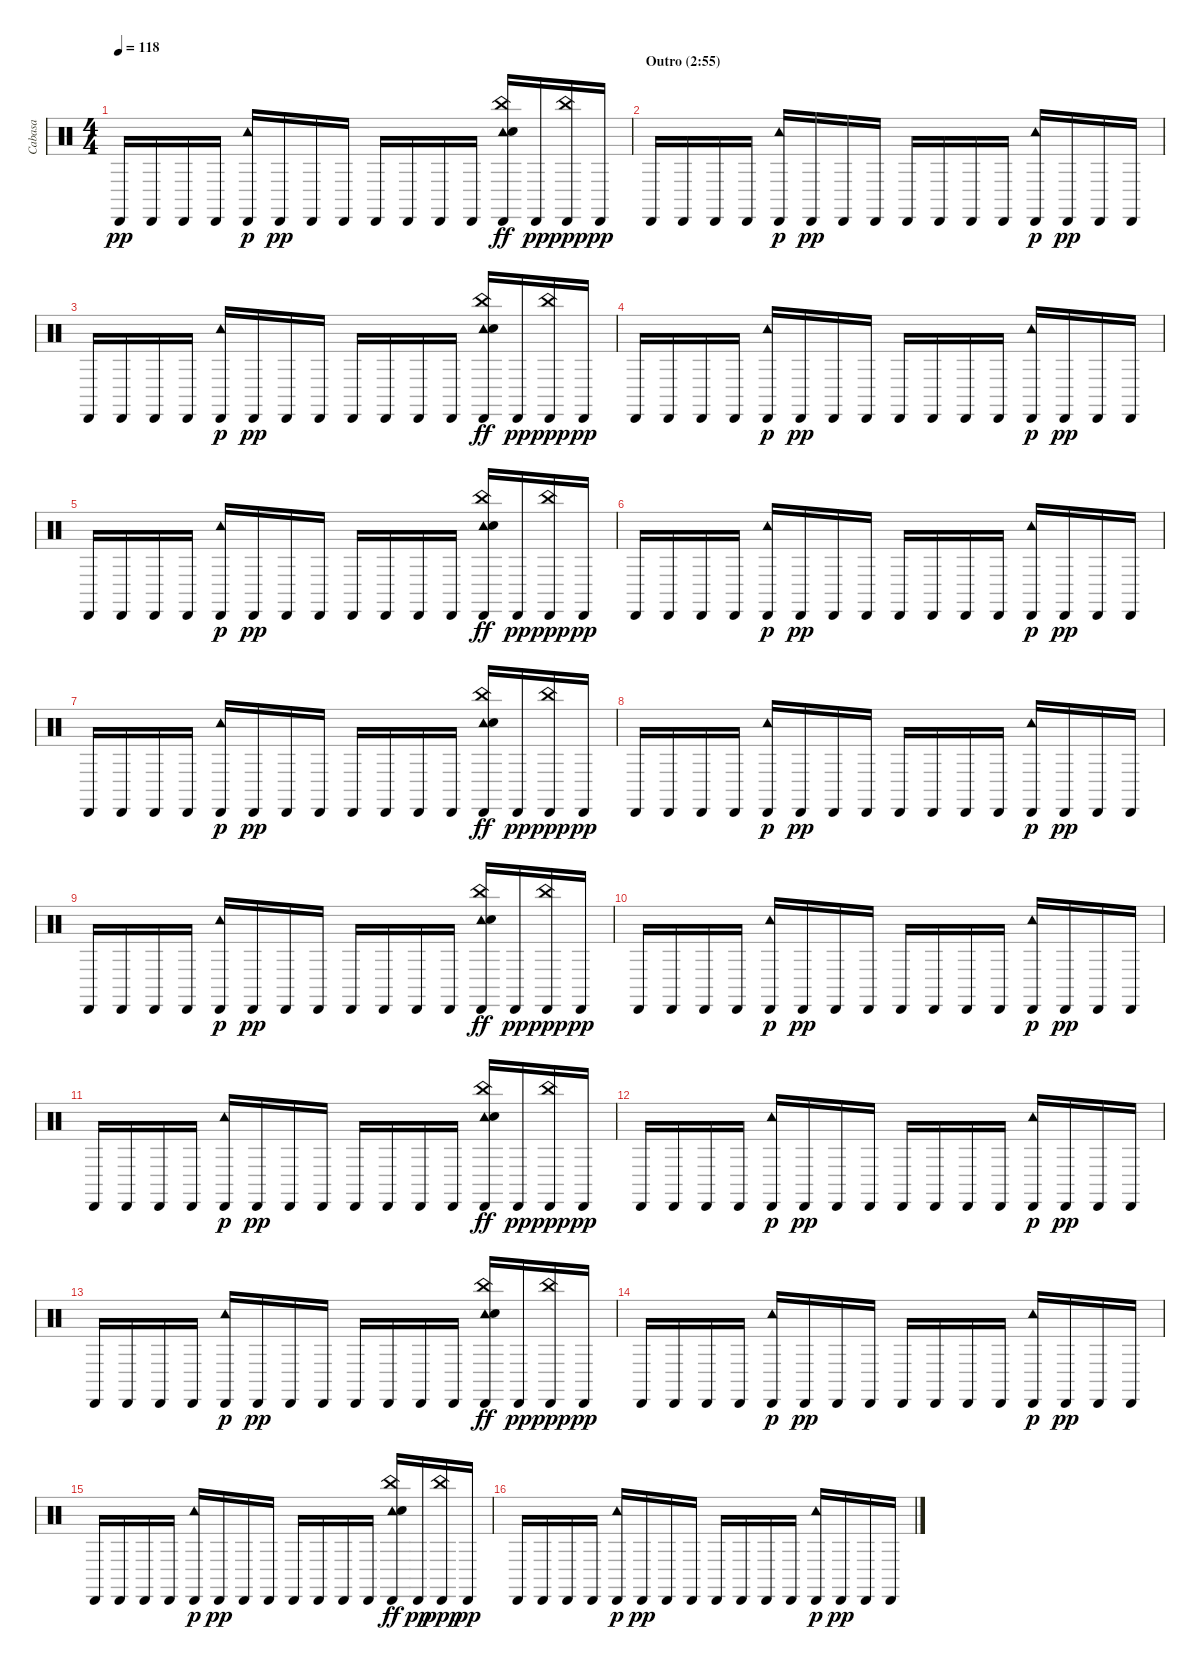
\track ("Cabasa" "Cabasa") {instrument percussion}
\staff {score}
\articulation defaults
\ts (4 4)
\tempo 118
\clef neutral
\ks c "Cabasa (hit)".16{dy pp} "Cabasa (hit)".16 "Cabasa (hit)".16 "Cabasa (hit)".16
("Cabasa (hit)" "Tambourine (hit)").16{dy p} "Cabasa (hit)".16{dy pp} "Cabasa (hit)".16 "Cabasa (hit)".16 "Cabasa (hit)".16 "Cabasa (hit)".16 "Cabasa (hit)".16 "Cabasa (hit)".16 ("Cabasa (hit)" "Tambourine (hit)" "Hand Clap (hit)" "China (hit)").16{dy ff} "Cabasa (hit)".16{dy pp} ("Cabasa (hit)" "China (hit)").16{dy ppp} "Cabasa (hit)".16{dy pp} |
\section ("" "Outro (2:55)")
"Cabasa (hit)".16 "Cabasa (hit)".16 "Cabasa (hit)".16 "Cabasa (hit)".16 ("Cabasa (hit)" "Tambourine (hit)").16{dy p} "Cabasa (hit)".16{dy pp} "Cabasa (hit)".16 "Cabasa (hit)".16 "Cabasa (hit)".16 "Cabasa (hit)".16 "Cabasa (hit)".16 "Cabasa (hit)".16 ("Cabasa (hit)" "Tambourine (hit)").16{dy p} "Cabasa (hit)".16{dy pp} "Cabasa (hit)".16 "Cabasa (hit)".16 |
"Cabasa (hit)".16 "Cabasa (hit)".16 "Cabasa (hit)".16 "Cabasa (hit)".16 ("Cabasa (hit)" "Tambourine (hit)").16{dy p} "Cabasa (hit)".16{dy pp} "Cabasa (hit)".16 "Cabasa (hit)".16 "Cabasa (hit)".16 "Cabasa (hit)".16 "Cabasa (hit)".16 "Cabasa (hit)".16 ("Cabasa (hit)" "Tambourine (hit)" "Hand Clap (hit)" "China (hit)").16{dy ff} "Cabasa (hit)".16{dy pp} ("Cabasa (hit)" "China (hit)").16{dy ppp} "Cabasa (hit)".16{dy pp} |
"Cabasa (hit)".16 "Cabasa (hit)".16 "Cabasa (hit)".16 "Cabasa (hit)".16 ("Cabasa (hit)" "Tambourine (hit)").16{dy p} "Cabasa (hit)".16{dy pp} "Cabasa (hit)".16 "Cabasa (hit)".16 "Cabasa (hit)".16 "Cabasa (hit)".16 "Cabasa (hit)".16 "Cabasa (hit)".16 ("Cabasa (hit)" "Tambourine (hit)").16{dy p} "Cabasa (hit)".16{dy pp} "Cabasa (hit)".16 "Cabasa (hit)".16 |
"Cabasa (hit)".16 "Cabasa (hit)".16 "Cabasa (hit)".16 "Cabasa (hit)".16 ("Cabasa (hit)" "Tambourine (hit)").16{dy p} "Cabasa (hit)".16{dy pp} "Cabasa (hit)".16 "Cabasa (hit)".16 "Cabasa (hit)".16 "Cabasa (hit)".16 "Cabasa (hit)".16 "Cabasa (hit)".16 ("Cabasa (hit)" "Tambourine (hit)" "Hand Clap (hit)" "China (hit)").16{dy ff} "Cabasa (hit)".16{dy pp} ("Cabasa (hit)" "China (hit)").16{dy ppp} "Cabasa (hit)".16{dy pp} |
"Cabasa (hit)".16 "Cabasa (hit)".16 "Cabasa (hit)".16 "Cabasa (hit)".16 ("Cabasa (hit)" "Tambourine (hit)").16{dy p} "Cabasa (hit)".16{dy pp} "Cabasa (hit)".16 "Cabasa (hit)".16 "Cabasa (hit)".16 "Cabasa (hit)".16 "Cabasa (hit)".16 "Cabasa (hit)".16 ("Cabasa (hit)" "Tambourine (hit)").16{dy p} "Cabasa (hit)".16{dy pp} "Cabasa (hit)".16 "Cabasa (hit)".16 |
"Cabasa (hit)".16 "Cabasa (hit)".16 "Cabasa (hit)".16 "Cabasa (hit)".16 ("Cabasa (hit)" "Tambourine (hit)").16{dy p} "Cabasa (hit)".16{dy pp} "Cabasa (hit)".16 "Cabasa (hit)".16 "Cabasa (hit)".16 "Cabasa (hit)".16 "Cabasa (hit)".16 "Cabasa (hit)".16 ("Cabasa (hit)" "Tambourine (hit)" "Hand Clap (hit)" "China (hit)").16{dy ff} "Cabasa (hit)".16{dy pp} ("Cabasa (hit)" "China (hit)").16{dy ppp} "Cabasa (hit)".16{dy pp} |
"Cabasa (hit)".16 "Cabasa (hit)".16 "Cabasa (hit)".16 "Cabasa (hit)".16 ("Cabasa (hit)" "Tambourine (hit)").16{dy p} "Cabasa (hit)".16{dy pp} "Cabasa (hit)".16 "Cabasa (hit)".16 "Cabasa (hit)".16 "Cabasa (hit)".16 "Cabasa (hit)".16 "Cabasa (hit)".16 ("Cabasa (hit)" "Tambourine (hit)").16{dy p} "Cabasa (hit)".16{dy pp} "Cabasa (hit)".16 "Cabasa (hit)".16 |
"Cabasa (hit)".16 "Cabasa (hit)".16 "Cabasa (hit)".16 "Cabasa (hit)".16 ("Cabasa (hit)" "Tambourine (hit)").16{dy p} "Cabasa (hit)".16{dy pp} "Cabasa (hit)".16 "Cabasa (hit)".16 "Cabasa (hit)".16 "Cabasa (hit)".16 "Cabasa (hit)".16 "Cabasa (hit)".16 ("Cabasa (hit)" "Tambourine (hit)" "Hand Clap (hit)" "China (hit)").16{dy ff} "Cabasa (hit)".16{dy pp} ("Cabasa (hit)" "China (hit)").16{dy ppp} "Cabasa (hit)".16{dy pp} |
"Cabasa (hit)".16 "Cabasa (hit)".16 "Cabasa (hit)".16 "Cabasa (hit)".16 ("Cabasa (hit)" "Tambourine (hit)").16{dy p} "Cabasa (hit)".16{dy pp} "Cabasa (hit)".16 "Cabasa (hit)".16 "Cabasa (hit)".16 "Cabasa (hit)".16 "Cabasa (hit)".16 "Cabasa (hit)".16 ("Cabasa (hit)" "Tambourine (hit)").16{dy p} "Cabasa (hit)".16{dy pp} "Cabasa (hit)".16 "Cabasa (hit)".16 |
"Cabasa (hit)".16 "Cabasa (hit)".16 "Cabasa (hit)".16 "Cabasa (hit)".16 ("Cabasa (hit)" "Tambourine (hit)").16{dy p} "Cabasa (hit)".16{dy pp} "Cabasa (hit)".16 "Cabasa (hit)".16 "Cabasa (hit)".16 "Cabasa (hit)".16 "Cabasa (hit)".16 "Cabasa (hit)".16 ("Cabasa (hit)" "Tambourine (hit)" "Hand Clap (hit)" "China (hit)").16{dy ff} "Cabasa (hit)".16{dy pp} ("Cabasa (hit)" "China (hit)").16{dy ppp} "Cabasa (hit)".16{dy pp} |
"Cabasa (hit)".16 "Cabasa (hit)".16 "Cabasa (hit)".16 "Cabasa (hit)".16 ("Cabasa (hit)" "Tambourine (hit)").16{dy p} "Cabasa (hit)".16{dy pp} "Cabasa (hit)".16 "Cabasa (hit)".16 "Cabasa (hit)".16 "Cabasa (hit)".16 "Cabasa (hit)".16 "Cabasa (hit)".16 ("Cabasa (hit)" "Tambourine (hit)").16{dy p} "Cabasa (hit)".16{dy pp} "Cabasa (hit)".16 "Cabasa (hit)".16 |
"Cabasa (hit)".16 "Cabasa (hit)".16 "Cabasa (hit)".16 "Cabasa (hit)".16 ("Cabasa (hit)" "Tambourine (hit)").16{dy p} "Cabasa (hit)".16{dy pp} "Cabasa (hit)".16 "Cabasa (hit)".16 "Cabasa (hit)".16 "Cabasa (hit)".16 "Cabasa (hit)".16 "Cabasa (hit)".16 ("Cabasa (hit)" "Tambourine (hit)" "Hand Clap (hit)" "China (hit)").16{dy ff} "Cabasa (hit)".16{dy pp} ("Cabasa (hit)" "China (hit)").16{dy ppp} "Cabasa (hit)".16{dy pp} |
"Cabasa (hit)".16 "Cabasa (hit)".16 "Cabasa (hit)".16 "Cabasa (hit)".16 ("Cabasa (hit)" "Tambourine (hit)").16{dy p} "Cabasa (hit)".16{dy pp} "Cabasa (hit)".16 "Cabasa (hit)".16 "Cabasa (hit)".16 "Cabasa (hit)".16 "Cabasa (hit)".16 "Cabasa (hit)".16 ("Cabasa (hit)" "Tambourine (hit)").16{dy p} "Cabasa (hit)".16{dy pp} "Cabasa (hit)".16 "Cabasa (hit)".16 |
"Cabasa (hit)".16 "Cabasa (hit)".16 "Cabasa (hit)".16 "Cabasa (hit)".16 ("Cabasa (hit)" "Tambourine (hit)").16{dy p} "Cabasa (hit)".16{dy pp} "Cabasa (hit)".16 "Cabasa (hit)".16 "Cabasa (hit)".16 "Cabasa (hit)".16 "Cabasa (hit)".16 "Cabasa (hit)".16 ("Cabasa (hit)" "Tambourine (hit)" "Hand Clap (hit)" "China (hit)").16{dy ff} "Cabasa (hit)".16{dy pp} ("Cabasa (hit)" "China (hit)").16{dy ppp} "Cabasa (hit)".16{dy pp} |
"Cabasa (hit)".16 "Cabasa (hit)".16 "Cabasa (hit)".16 "Cabasa (hit)".16 ("Cabasa (hit)" "Tambourine (hit)").16{dy p} "Cabasa (hit)".16{dy pp} "Cabasa (hit)".16 "Cabasa (hit)".16 "Cabasa (hit)".16 "Cabasa (hit)".16 "Cabasa (hit)".16 "Cabasa (hit)".16 ("Cabasa (hit)" "Tambourine (hit)").16{dy p} "Cabasa (hit)".16{dy pp} "Cabasa (hit)".16 "Cabasa (hit)".16
